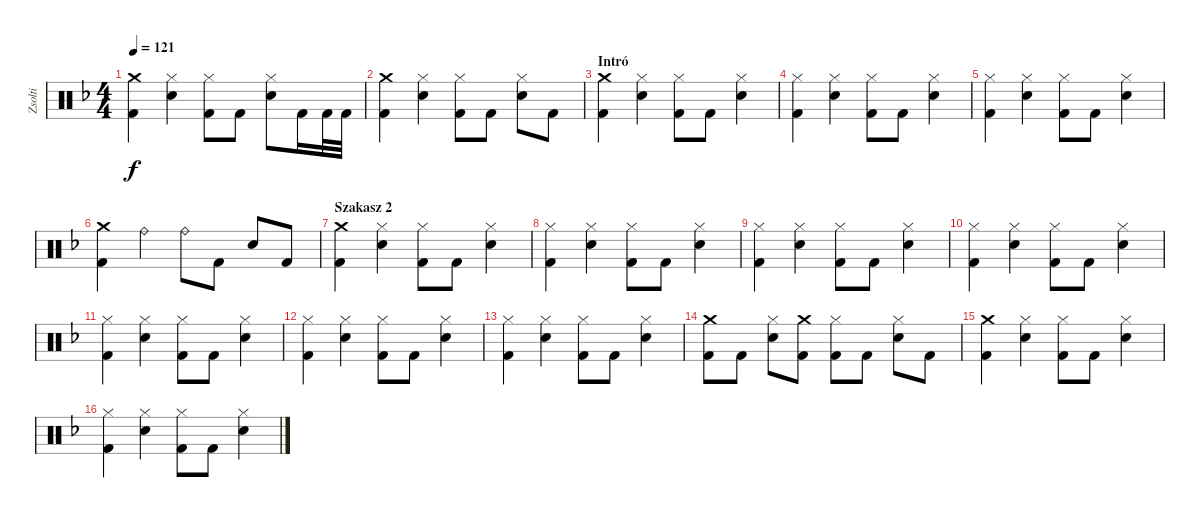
\track ("Zsolti" "Zsolti") {instrument percussion}
\staff {score}
\articulation defaults
\ts (4 4)
\tempo 121
\clef neutral
\ks dminor
("Crash medium (hit)" "Kick (hit) 2").4{dy f} ("Hi-Hat (closed)" "Snare (hit) 2").4 ("Hi-Hat (closed)" "Kick (hit) 2").8 "Kick (hit) 2".8 ("Hi-Hat (closed)" "Snare (hit) 2").8 "Kick (hit) 2".16 "Kick (hit) 2".32 "Kick (hit) 2".32 |
("Crash medium (hit)" "Kick (hit) 2").4 ("Hi-Hat (closed)" "Snare (hit) 2").4 ("Hi-Hat (closed)" "Kick (hit) 2").8 "Kick (hit) 2".8 ("Hi-Hat (closed)" "Snare (hit) 2").8 "Kick (hit) 2".8 |
\section ("" "Intró")
("Crash medium (hit)" "Kick (hit) 2").4 ("Hi-Hat (closed)" "Snare (hit) 2").4 ("Hi-Hat (closed)" "Kick (hit) 2").8 "Kick (hit) 2".8 ("Hi-Hat (closed)" "Snare (hit) 2").4 |
("Hi-Hat (closed)" "Kick (hit) 2").4 ("Hi-Hat (closed)" "Snare (hit) 2").4 ("Hi-Hat (closed)" "Kick (hit) 2").8 "Kick (hit) 2".8 ("Hi-Hat (closed)" "Snare (hit) 2").4 |
("Hi-Hat (closed)" "Kick (hit) 2").4 ("Hi-Hat (closed)" "Snare (hit) 2").4 ("Hi-Hat (closed)" "Kick (hit) 2").8 "Kick (hit) 2".8 ("Hi-Hat (closed)" "Snare (hit) 2").4 |
("Crash medium (hit)" "Kick (hit) 2").4 "Ride (bell)".4 "Ride (bell)".8 "Kick (hit) 2".8 "Snare (hit) 2".8 "Kick (hit) 2".8 |
\section ("" "Szakasz 2")
("Crash medium (hit)" "Kick (hit) 2").4 ("Hi-Hat (closed)" "Snare (hit) 2").4 ("Hi-Hat (closed)" "Kick (hit) 2").8 "Kick (hit) 2".8 ("Hi-Hat (closed)" "Snare (hit) 2").4 |
("Hi-Hat (closed)" "Kick (hit) 2").4 ("Hi-Hat (closed)" "Snare (hit) 2").4 ("Hi-Hat (closed)" "Kick (hit) 2").8 "Kick (hit) 2".8 ("Hi-Hat (closed)" "Snare (hit) 2").4 |
("Hi-Hat (closed)" "Kick (hit) 2").4 ("Hi-Hat (closed)" "Snare (hit) 2").4 ("Hi-Hat (closed)" "Kick (hit) 2").8 "Kick (hit) 2".8 ("Hi-Hat (closed)" "Snare (hit) 2").4 |
("Hi-Hat (closed)" "Kick (hit) 2").4 ("Hi-Hat (closed)" "Snare (hit) 2").4 ("Hi-Hat (closed)" "Kick (hit) 2").8 "Kick (hit) 2".8 ("Hi-Hat (closed)" "Snare (hit) 2").4 |
("Hi-Hat (closed)" "Kick (hit) 2").4 ("Hi-Hat (closed)" "Snare (hit) 2").4 ("Hi-Hat (closed)" "Kick (hit) 2").8 "Kick (hit) 2".8 ("Hi-Hat (closed)" "Snare (hit) 2").4 |
("Hi-Hat (closed)" "Kick (hit) 2").4 ("Hi-Hat (closed)" "Snare (hit) 2").4 ("Hi-Hat (closed)" "Kick (hit) 2").8 "Kick (hit) 2".8 ("Hi-Hat (closed)" "Snare (hit) 2").4 |
("Hi-Hat (closed)" "Kick (hit) 2").4 ("Hi-Hat (closed)" "Snare (hit) 2").4 ("Hi-Hat (closed)" "Kick (hit) 2").8 "Kick (hit) 2".8 ("Hi-Hat (closed)" "Snare (hit) 2").4 |
("Crash medium (hit)" "Kick (hit) 2").8 "Kick (hit) 2".8 ("Hi-Hat (closed)" "Snare (hit) 2").8 ("Crash medium (hit)" "Kick (hit) 2").8 ("Hi-Hat (closed)" "Kick (hit) 2").8 "Kick (hit) 2".8 ("Hi-Hat (closed)" "Snare (hit) 2").8 "Kick (hit) 2".8 |
("Crash medium (hit)" "Kick (hit) 2").4 ("Hi-Hat (closed)" "Snare (hit) 2").4 ("Hi-Hat (closed)" "Kick (hit) 2").8 "Kick (hit) 2".8 ("Hi-Hat (closed)" "Snare (hit) 2").4 |
("Hi-Hat (closed)" "Kick (hit) 2").4 ("Hi-Hat (closed)" "Snare (hit) 2").4 ("Hi-Hat (closed)" "Kick (hit) 2").8 "Kick (hit) 2".8 ("Hi-Hat (closed)" "Snare (hit) 2").4
